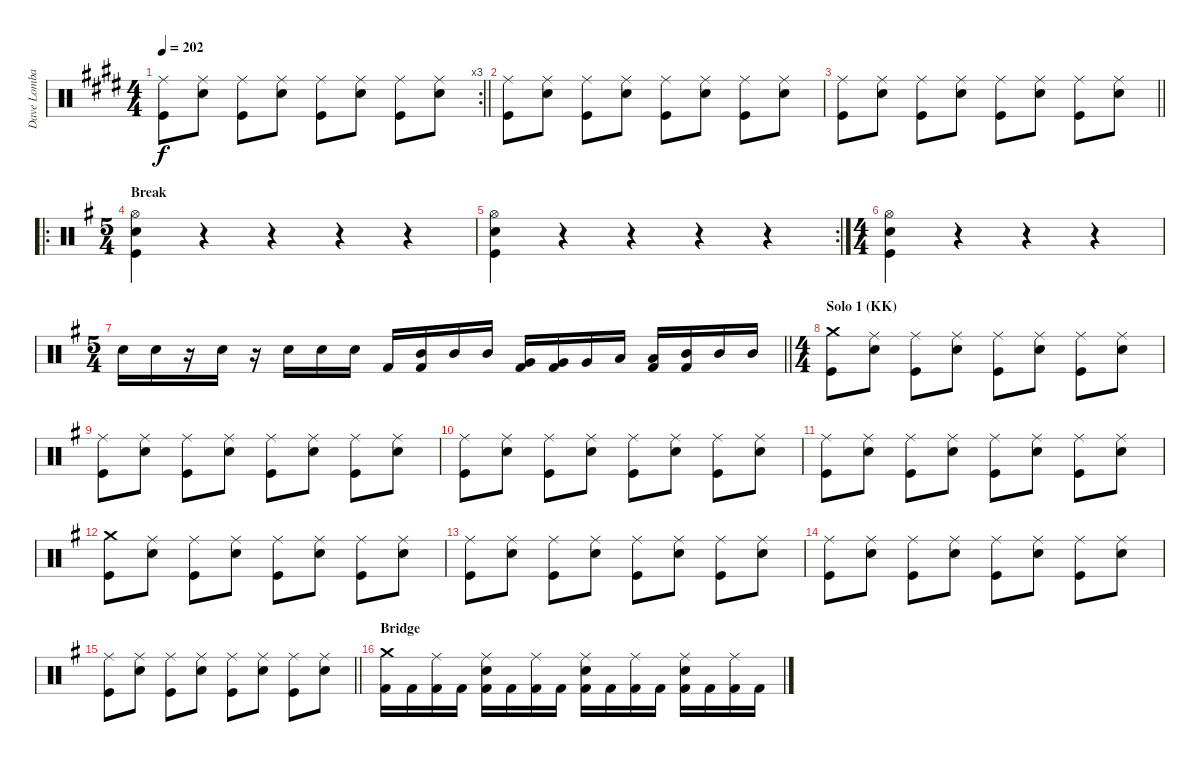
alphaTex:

\track ("Dave Lombardo" "Dave Lomba") {instrument percussion}
\staff {score}
\articulation defaults
\rc 3
\ts (4 4)
\tempo 202
\clef neutral
\barLineRight lightlight
\ks e
("Ride (middle)" "Kick (hit)").8{dy f} ("Ride (middle)" "Snare (hit) 2").8 ("Ride (middle)" "Kick (hit)").8 ("Ride (middle)" "Snare (hit) 2").8 ("Ride (middle)" "Kick (hit)").8 ("Ride (middle)" "Snare (hit) 2").8 ("Ride (middle)" "Kick (hit)").8 ("Ride (middle)" "Snare (hit) 2").8 |
("Ride (middle)" "Kick (hit)").8 ("Ride (middle)" "Snare (hit) 2").8 ("Ride (middle)" "Kick (hit)").8 ("Ride (middle)" "Snare (hit) 2").8 ("Ride (middle)" "Kick (hit)").8 ("Ride (middle)" "Snare (hit) 2").8 ("Ride (middle)" "Kick (hit)").8 ("Ride (middle)" "Snare (hit) 2").8 |
\barLineRight lightlight
("Ride (middle)" "Kick (hit)").8 ("Ride (middle)" "Snare (hit) 2").8 ("Ride (middle)" "Kick (hit)").8 ("Ride (middle)" "Snare (hit) 2").8 ("Ride (middle)" "Kick (hit)").8 ("Ride (middle)" "Snare (hit) 2").8 ("Ride (middle)" "Kick (hit)").8 ("Ride (middle)" "Snare (hit) 2").8 |
\ro
\ts (5 4)
\section ("" "Break")
\ks g
("Hi-Hat (open)" "Snare (hit) 2" "Kick (hit)").4 r.4 r.4 r.4 r.4 |
\rc 2
("Hi-Hat (open)" "Snare (hit) 2" "Kick (hit)").4 r.4 r.4 r.4 r.4 |
\ts (4 4)
("Hi-Hat (open)" "Snare (hit) 2" "Kick (hit)").4 r.4 r.4 r.4 |
\ts (5 4)
\barLineRight lightlight "Snare (hit) 2".16 "Snare (hit) 2".16
r.16 "Snare (hit) 2".16 r.16 "Snare (hit) 2".16 "Snare (hit) 2".16 "Snare (hit) 2".16 "Kick (hit) 2".16 ("Mid Tom (hit)" "Kick (hit) 2").16 "Mid Tom (hit)".16 "Mid Tom (hit)".16 ("Very Low Tom (hit)" "Kick (hit) 2").16 ("Very Low Tom (hit)" "Kick (hit) 2").16 "Very Low Tom (hit)".16 "Low Tom (hit)".16 ("Low Tom (hit)" "Kick (hit) 2").16 ("Mid Tom (hit)" "Kick (hit) 2").16 "Mid Tom (hit)".16 "Mid Tom (hit)".16 |
\ts (4 4)
\section ("" "Solo 1 (KK)")
("Crash medium (hit)" "Kick (hit)").8 ("Ride (middle)" "Snare (hit) 2").8 ("Ride (middle)" "Kick (hit)").8 ("Ride (middle)" "Snare (hit) 2").8 ("Ride (middle)" "Kick (hit)").8 ("Ride (middle)" "Snare (hit) 2").8 ("Ride (middle)" "Kick (hit)").8 ("Ride (middle)" "Snare (hit) 2").8 |
("Ride (middle)" "Kick (hit)").8 ("Ride (middle)" "Snare (hit) 2").8 ("Ride (middle)" "Kick (hit)").8 ("Ride (middle)" "Snare (hit) 2").8 ("Ride (middle)" "Kick (hit)").8 ("Ride (middle)" "Snare (hit) 2").8 ("Ride (middle)" "Kick (hit)").8 ("Ride (middle)" "Snare (hit) 2").8 |
("Ride (middle)" "Kick (hit)").8 ("Ride (middle)" "Snare (hit) 2").8 ("Ride (middle)" "Kick (hit)").8 ("Ride (middle)" "Snare (hit) 2").8 ("Ride (middle)" "Kick (hit)").8 ("Ride (middle)" "Snare (hit) 2").8 ("Ride (middle)" "Kick (hit)").8 ("Ride (middle)" "Snare (hit) 2").8 |
("Ride (middle)" "Kick (hit)").8 ("Ride (middle)" "Snare (hit) 2").8 ("Ride (middle)" "Kick (hit)").8 ("Ride (middle)" "Snare (hit) 2").8 ("Ride (middle)" "Kick (hit)").8 ("Ride (middle)" "Snare (hit) 2").8 ("Ride (middle)" "Kick (hit)").8 ("Ride (middle)" "Snare (hit) 2").8 |
("Crash medium (hit)" "Kick (hit)").8 ("Ride (middle)" "Snare (hit) 2").8 ("Ride (middle)" "Kick (hit)").8 ("Ride (middle)" "Snare (hit) 2").8 ("Ride (middle)" "Kick (hit)").8 ("Ride (middle)" "Snare (hit) 2").8 ("Ride (middle)" "Kick (hit)").8 ("Ride (middle)" "Snare (hit) 2").8 |
("Ride (middle)" "Kick (hit)").8 ("Ride (middle)" "Snare (hit) 2").8 ("Ride (middle)" "Kick (hit)").8 ("Ride (middle)" "Snare (hit) 2").8 ("Ride (middle)" "Kick (hit)").8 ("Ride (middle)" "Snare (hit) 2").8 ("Ride (middle)" "Kick (hit)").8 ("Ride (middle)" "Snare (hit) 2").8 |
("Ride (middle)" "Kick (hit)").8 ("Ride (middle)" "Snare (hit) 2").8 ("Ride (middle)" "Kick (hit)").8 ("Ride (middle)" "Snare (hit) 2").8 ("Ride (middle)" "Kick (hit)").8 ("Ride (middle)" "Snare (hit) 2").8 ("Ride (middle)" "Kick (hit)").8 ("Ride (middle)" "Snare (hit) 2").8 |
\barLineRight lightlight
("Ride (middle)" "Kick (hit)").8 ("Ride (middle)" "Snare (hit) 2").8 ("Ride (middle)" "Kick (hit)").8 ("Ride (middle)" "Snare (hit) 2").8 ("Ride (middle)" "Kick (hit)").8 ("Ride (middle)" "Snare (hit) 2").8 ("Ride (middle)" "Kick (hit)").8 ("Ride (middle)" "Snare (hit) 2").8 |
\section ("" "Bridge")
("Crash medium (hit)" "Kick (hit) 2").16 "Kick (hit) 2".16 ("Ride (middle)" "Kick (hit) 2").16 "Kick (hit) 2".16 ("Ride (middle)" "Snare (hit) 2" "Kick (hit) 2").16 "Kick (hit) 2".16 ("Ride (middle)" "Kick (hit) 2").16 "Kick (hit) 2".16 ("Ride (middle)" "Snare (hit) 2" "Kick (hit) 2").16 "Kick (hit) 2".16 ("Ride (middle)" "Kick (hit) 2").16 "Kick (hit) 2".16 ("Ride (middle)" "Snare (hit) 2" "Kick (hit) 2").16 "Kick (hit) 2".16 ("Ride (middle)" "Kick (hit) 2").16 "Kick (hit) 2".16
